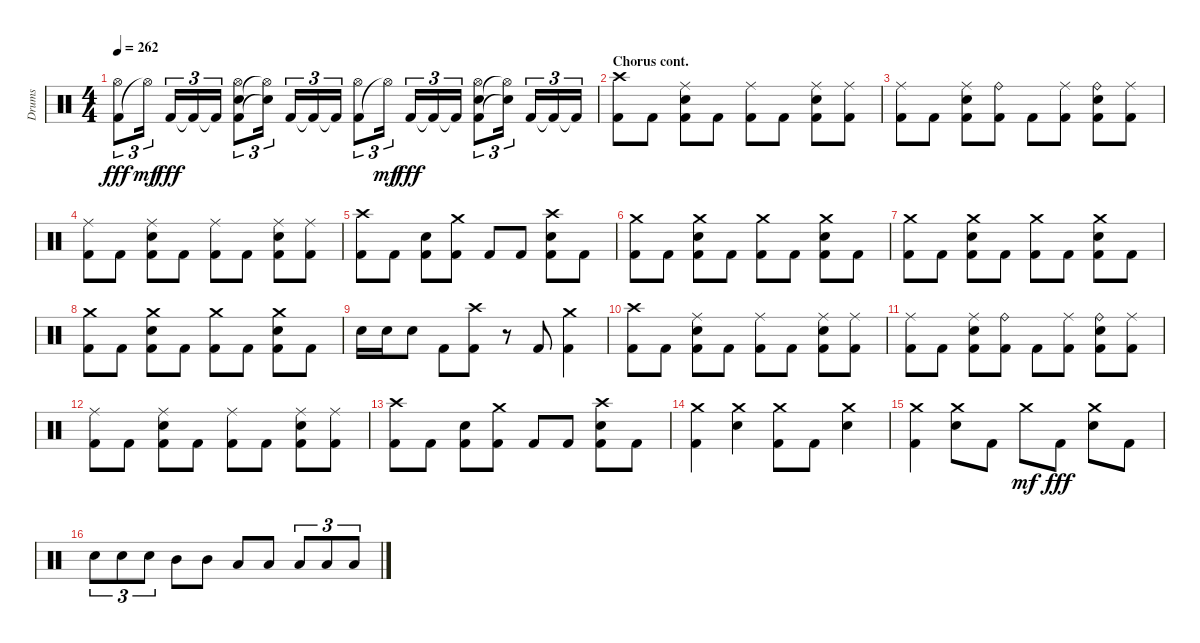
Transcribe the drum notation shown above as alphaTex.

\track ("Drums" "Drums") {instrument percussion}
\staff {score}
\articulation defaults
\ts (4 4)
\tempo 262
\clef neutral
\ks aminor
("Kick (hit) 2" "Hi-Hat (open)").8{tu (3 2) dy fff} "Hi-Hat (open)"{t}.16{tu (3 2) dy mf} "Kick (hit) 2".16{tu (3 2) dy fff} "Kick (hit) 2"{t}.16{tu (3 2)} "Kick (hit) 2"{t}.16{tu (3 2)} ("Kick (hit) 2" "Snare (hit) 2" "Hi-Hat (open)").8{tu (3 2)} ("Snare (hit) 2"{t} "Hi-Hat (open)"{t}).16{tu (3 2)} "Kick (hit) 2".16{tu (3 2)} "Kick (hit) 2"{t}.16{tu (3 2)} "Kick (hit) 2"{t}.16{tu (3 2)} ("Kick (hit) 2" "Hi-Hat (open)").8{tu (3 2)} "Hi-Hat (open)"{t}.16{tu (3 2) dy mf} "Kick (hit) 2".16{tu (3 2) dy fff} "Kick (hit) 2"{t}.16{tu (3 2)} "Kick (hit) 2"{t}.16{tu (3 2)} ("Kick (hit) 2" "Snare (hit) 2" "Hi-Hat (open)").8{tu (3 2)} ("Snare (hit) 2"{t} "Hi-Hat (open)"{t}).16{tu (3 2)} "Kick (hit) 2".16{tu (3 2)} "Kick (hit) 2"{t}.16{tu (3 2)} "Kick (hit) 2"{t}.16{tu (3 2)} |
\section ("" "Chorus cont.")
("Kick (hit) 2" "Crash high (hit)").8 "Kick (hit) 2".8 ("Kick (hit) 2" "Snare (hit) 2" "Ride (middle)").8 "Kick (hit) 2".8 ("Kick (hit) 2" "Ride (middle)").8 "Kick (hit) 2".8 ("Kick (hit) 2" "Snare (hit) 2" "Ride (middle)").8 ("Kick (hit) 2" "Ride (middle)").8 |
("Kick (hit) 2" "Ride (middle)").8 "Kick (hit) 2".8 ("Kick (hit) 2" "Snare (hit) 2" "Ride (middle)").8 ("Kick (hit) 2" "Ride (bell)").8 "Kick (hit) 2".8 ("Kick (hit) 2" "Ride (middle)").8 ("Kick (hit) 2" "Snare (hit) 2" "Ride (bell)").8 ("Kick (hit) 2" "Ride (middle)").8 |
("Kick (hit) 2" "Ride (middle)").8 "Kick (hit) 2".8 ("Snare (hit) 2" "Kick (hit) 2" "Ride (middle)").8 "Kick (hit) 2".8 ("Kick (hit) 2" "Ride (middle)").8 "Kick (hit) 2".8 ("Kick (hit) 2" "Snare (hit) 2" "Ride (middle)").8 ("Kick (hit) 2" "Ride (middle)").8 |
("Kick (hit) 2" "Crash high (hit)").8 "Kick (hit) 2".8 ("Kick (hit) 2" "Snare (hit) 2").8 ("Kick (hit) 2" "Crash medium (hit)").8 "Kick (hit) 2".8 "Kick (hit) 2".8 ("Kick (hit) 2" "Snare (hit) 2" "Crash high (hit)").8 "Kick (hit) 2".8 |
("Kick (hit) 2" "Crash medium (hit)").8 "Kick (hit) 2".8 ("Kick (hit) 2" "Snare (hit) 2" "Crash medium (hit)").8 "Kick (hit) 2".8 ("Kick (hit) 2" "Crash medium (hit)").8 "Kick (hit) 2".8 ("Snare (hit) 2" "Kick (hit) 2" "Crash medium (hit)").8 "Kick (hit) 2".8 |
("Kick (hit) 2" "Crash medium (hit)").8 "Kick (hit) 2".8 ("Kick (hit) 2" "Snare (hit) 2" "Crash medium (hit)").8 "Kick (hit) 2".8 ("Kick (hit) 2" "Crash medium (hit)").8 "Kick (hit) 2".8 ("Kick (hit) 2" "Snare (hit) 2" "Crash medium (hit)").8 "Kick (hit) 2".8 |
("Kick (hit) 2" "Crash medium (hit)").8 "Kick (hit) 2".8 ("Kick (hit) 2" "Snare (hit) 2" "Crash medium (hit)").8 "Kick (hit) 2".8 ("Kick (hit) 2" "Crash medium (hit)").8 "Kick (hit) 2".8 ("Kick (hit) 2" "Snare (hit) 2" "Crash medium (hit)").8 "Kick (hit) 2".8 |
"Snare (hit) 2".16 "Snare (hit) 2".16 "Snare (hit) 2".8 "Kick (hit) 2".8 ("Kick (hit) 2" "Crash high (hit)").8 r.8 "Kick (hit) 2".8 ("Kick (hit) 2" "Crash medium (hit)").4 |
("Kick (hit) 2" "Crash high (hit)").8 "Kick (hit) 2".8 ("Kick (hit) 2" "Snare (hit) 2" "Ride (middle)").8 "Kick (hit) 2".8 ("Kick (hit) 2" "Ride (middle)").8 "Kick (hit) 2".8 ("Kick (hit) 2" "Snare (hit) 2" "Ride (middle)").8 ("Kick (hit) 2" "Ride (middle)").8 |
("Kick (hit) 2" "Ride (middle)").8 "Kick (hit) 2".8 ("Kick (hit) 2" "Snare (hit) 2" "Ride (middle)").8 ("Kick (hit) 2" "Ride (bell)").8 "Kick (hit) 2".8 ("Kick (hit) 2" "Ride (middle)").8 ("Kick (hit) 2" "Snare (hit) 2" "Ride (bell)").8 ("Kick (hit) 2" "Ride (middle)").8 |
("Kick (hit) 2" "Ride (middle)").8 "Kick (hit) 2".8 ("Kick (hit) 2" "Snare (hit) 2" "Ride (middle)").8 "Kick (hit) 2".8 ("Kick (hit) 2" "Ride (middle)").8 "Kick (hit) 2".8 ("Snare (hit) 2" "Kick (hit) 2" "Ride (middle)").8 ("Kick (hit) 2" "Ride (middle)").8 |
("Kick (hit) 2" "Crash high (hit)").8 "Kick (hit) 2".8 ("Kick (hit) 2" "Snare (hit) 2").8 ("Kick (hit) 2" "Crash medium (hit)").8 "Kick (hit) 2".8 "Kick (hit) 2".8 ("Kick (hit) 2" "Snare (hit) 2" "Crash high (hit)").8 "Kick (hit) 2".8 |
("Kick (hit) 2" "Crash medium (hit)").4 ("Snare (hit) 2" "Crash medium (hit)").4 ("Kick (hit) 2" "Crash medium (hit)").8 "Kick (hit) 2".8 ("Snare (hit) 2" "Crash medium (hit)").4 |
("Kick (hit) 2" "Crash medium (hit)").4 ("Snare (hit) 2" "Crash medium (hit)").8 "Kick (hit) 2".8 "Crash medium (hit)".8{dy mf} "Kick (hit) 2".8{dy fff} ("Snare (hit) 2" "Crash medium (hit)").8 "Kick (hit) 2".8 |
"Snare (hit) 2".8{tu (3 2)} "Snare (hit) 2".8{tu (3 2)} "Snare (hit) 2".8{tu (3 2)} "Mid Tom (hit)".8 "Mid Tom (hit)".8 "Low Tom (hit)".8 "Low Tom (hit)".8 "Low Tom (hit)".8{tu (3 2)} "Low Tom (hit)".8{tu (3 2)} "Low Tom (hit)".8{tu (3 2)}
